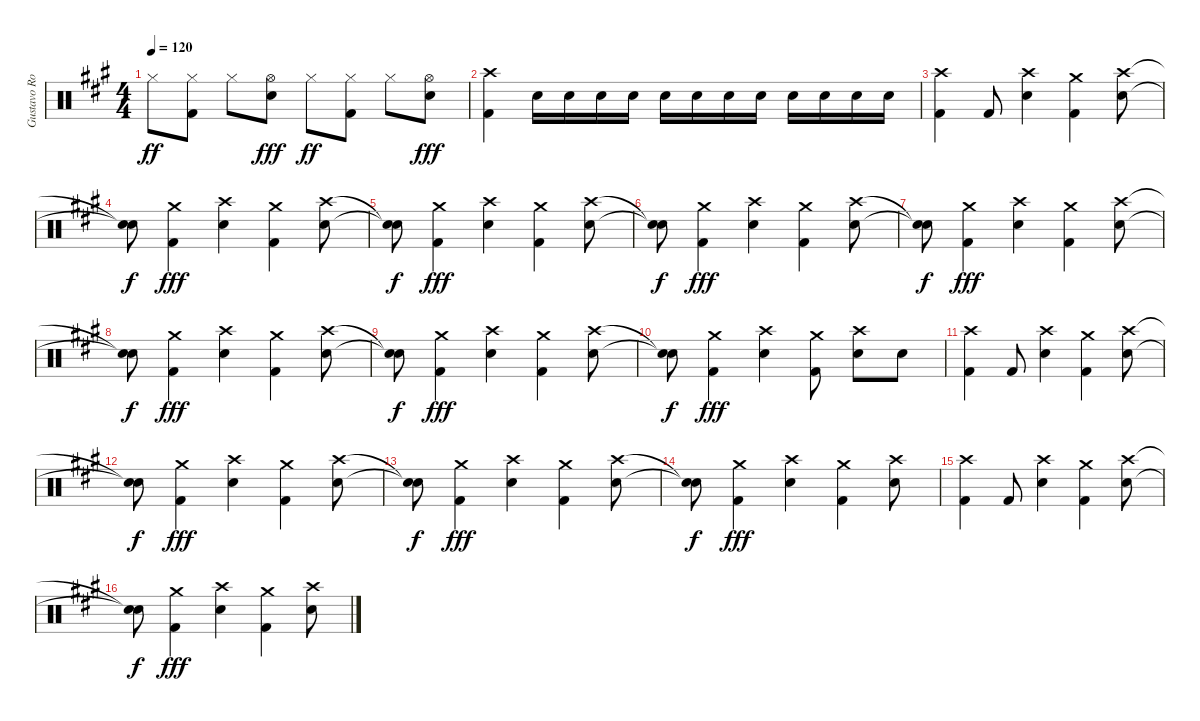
\track ("Gustavo Rowek" "Gustavo Ro") {instrument percussion}
\staff {score}
\articulation defaults
\ts (4 4)
\tempo 120
\clef neutral
\ks a "Hi-Hat (closed)".8{dy ff}
("Hi-Hat (closed)" "Kick (hit) 2").8 "Hi-Hat (closed)".8 ("Hi-Hat (open)" "Snare (hit) 2").8{dy fff} "Hi-Hat (closed)".8{dy ff} ("Hi-Hat (closed)" "Kick (hit) 2").8 "Hi-Hat (closed)".8 ("Hi-Hat (open)" "Snare (hit) 2").8{dy fff} |
("Crash high (hit)" "Kick (hit) 2").4 "Snare (hit) 2".16 "Snare (hit) 2".16 "Snare (hit) 2".16 "Snare (hit) 2".16 "Snare (hit) 2".16 "Snare (hit) 2".16 "Snare (hit) 2".16 "Snare (hit) 2".16 "Snare (hit) 2".16 "Snare (hit) 2".16 "Snare (hit) 2".16 "Snare (hit) 2".16 |
("Crash high (hit)" "Kick (hit) 2").4 "Kick (hit) 2".8 ("Crash high (hit)" "Snare (hit) 2").4 ("Crash medium (hit)" "Kick (hit) 2").4 ("Crash high (hit)" "Snare (hit) 2").8 |
("Snare (hit)"{t} "Snare (hit)"{t}).8{dy f} ("Crash medium (hit)" "Kick (hit) 2").4{dy fff} ("Crash high (hit)" "Snare (hit) 2").4 ("Crash medium (hit)" "Kick (hit) 2").4 ("Crash high (hit)" "Snare (hit) 2").8 |
("Snare (hit)"{t} "Snare (hit)"{t}).8{dy f} ("Crash medium (hit)" "Kick (hit) 2").4{dy fff} ("Crash high (hit)" "Snare (hit) 2").4 ("Crash medium (hit)" "Kick (hit) 2").4 ("Crash high (hit)" "Snare (hit) 2").8 |
("Snare (hit)"{t} "Snare (hit)"{t}).8{dy f} ("Crash medium (hit)" "Kick (hit) 2").4{dy fff} ("Crash high (hit)" "Snare (hit) 2").4 ("Crash medium (hit)" "Kick (hit) 2").4 ("Crash high (hit)" "Snare (hit) 2").8 |
("Snare (hit)"{t} "Snare (hit)"{t}).8{dy f} ("Crash medium (hit)" "Kick (hit) 2").4{dy fff} ("Crash high (hit)" "Snare (hit) 2").4 ("Crash medium (hit)" "Kick (hit) 2").4 ("Crash high (hit)" "Snare (hit) 2").8 |
("Snare (hit)"{t} "Snare (hit)"{t}).8{dy f} ("Crash medium (hit)" "Kick (hit) 2").4{dy fff} ("Crash high (hit)" "Snare (hit) 2").4 ("Crash medium (hit)" "Kick (hit) 2").4 ("Crash high (hit)" "Snare (hit) 2").8 |
("Snare (hit)"{t} "Snare (hit)"{t}).8{dy f} ("Crash medium (hit)" "Kick (hit) 2").4{dy fff} ("Crash high (hit)" "Snare (hit) 2").4 ("Crash medium (hit)" "Kick (hit) 2").4 ("Crash high (hit)" "Snare (hit) 2").8 |
("Snare (hit)"{t} "Snare (hit)"{t}).8{dy f} ("Crash medium (hit)" "Kick (hit) 2").4{dy fff} ("Crash high (hit)" "Snare (hit) 2").4 ("Crash medium (hit)" "Kick (hit) 2").8 ("Crash high (hit)" "Snare (hit) 2").8 "Snare (hit) 2".8 |
("Crash high (hit)" "Kick (hit) 2").4 "Kick (hit) 2".8 ("Crash high (hit)" "Snare (hit) 2").4 ("Crash medium (hit)" "Kick (hit) 2").4 ("Crash high (hit)" "Snare (hit) 2").8 |
("Snare (hit)"{t} "Snare (hit)"{t}).8{dy f} ("Crash medium (hit)" "Kick (hit) 2").4{dy fff} ("Crash high (hit)" "Snare (hit) 2").4 ("Crash medium (hit)" "Kick (hit) 2").4 ("Crash high (hit)" "Snare (hit) 2").8 |
("Snare (hit)"{t} "Snare (hit)"{t}).8{dy f} ("Crash medium (hit)" "Kick (hit) 2").4{dy fff} ("Crash high (hit)" "Snare (hit) 2").4 ("Crash medium (hit)" "Kick (hit) 2").4 ("Crash high (hit)" "Snare (hit) 2").8 |
("Snare (hit)"{t} "Snare (hit)"{t}).8{dy f} ("Crash medium (hit)" "Kick (hit) 2").4{dy fff} ("Crash high (hit)" "Snare (hit) 2").4 ("Crash medium (hit)" "Kick (hit) 2").4 ("Crash high (hit)" "Snare (hit) 2").8 |
("Crash high (hit)" "Kick (hit) 2").4 "Kick (hit) 2".8 ("Crash high (hit)" "Snare (hit) 2").4 ("Crash medium (hit)" "Kick (hit) 2").4 ("Crash high (hit)" "Snare (hit) 2").8 |
("Snare (hit)"{t} "Snare (hit)"{t}).8{dy f} ("Crash medium (hit)" "Kick (hit) 2").4{dy fff} ("Crash high (hit)" "Snare (hit) 2").4 ("Crash medium (hit)" "Kick (hit) 2").4 ("Crash high (hit)" "Snare (hit) 2").8
